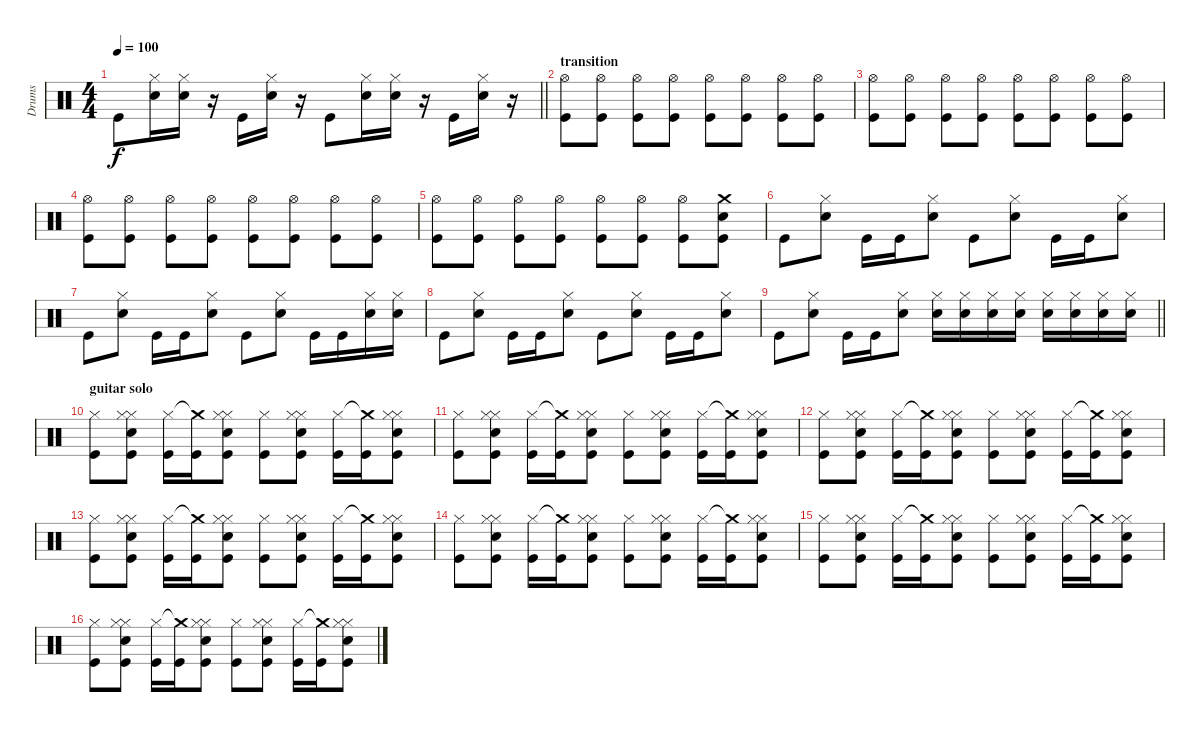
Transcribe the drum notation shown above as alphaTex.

\track ("Drums" "Drums") {instrument percussion}
\staff {score}
\articulation defaults
\ts (4 4)
\tempo 100
\clef neutral
\barLineRight lightlight
\ks c "Kick (hit)".8{dy f}
("Hi-Hat (closed)" "Snare (hit) 2").16 ("Hi-Hat (closed)" "Snare (hit) 2").16 r.16 "Kick (hit)".16 ("Hi-Hat (closed)" "Snare (hit) 2").16 r.16 "Kick (hit)".8 ("Hi-Hat (closed)" "Snare (hit) 2").16 ("Hi-Hat (closed)" "Snare (hit) 2").16 r.16 "Kick (hit)".16 ("Hi-Hat (closed)" "Snare (hit) 2").16 r.16 |
\section ("" "transition")
("Hi-Hat (open)" "Kick (hit)").8 ("Hi-Hat (open)" "Kick (hit)").8 ("Hi-Hat (open)" "Kick (hit)").8 ("Hi-Hat (open)" "Kick (hit)").8 ("Hi-Hat (open)" "Kick (hit)").8 ("Hi-Hat (open)" "Kick (hit)").8 ("Hi-Hat (open)" "Kick (hit)").8 ("Hi-Hat (open)" "Kick (hit)").8 |
("Hi-Hat (open)" "Kick (hit)").8 ("Hi-Hat (open)" "Kick (hit)").8 ("Hi-Hat (open)" "Kick (hit)").8 ("Hi-Hat (open)" "Kick (hit)").8 ("Hi-Hat (open)" "Kick (hit)").8 ("Hi-Hat (open)" "Kick (hit)").8 ("Hi-Hat (open)" "Kick (hit)").8 ("Hi-Hat (open)" "Kick (hit)").8 |
("Hi-Hat (open)" "Kick (hit)").8 ("Hi-Hat (open)" "Kick (hit)").8 ("Hi-Hat (open)" "Kick (hit)").8 ("Hi-Hat (open)" "Kick (hit)").8 ("Hi-Hat (open)" "Kick (hit)").8 ("Hi-Hat (open)" "Kick (hit)").8 ("Hi-Hat (open)" "Kick (hit)").8 ("Hi-Hat (open)" "Kick (hit)").8 |
("Hi-Hat (open)" "Kick (hit)").8 ("Hi-Hat (open)" "Kick (hit)").8 ("Hi-Hat (open)" "Kick (hit)").8 ("Hi-Hat (open)" "Kick (hit)").8 ("Hi-Hat (open)" "Kick (hit)").8 ("Hi-Hat (open)" "Kick (hit)").8 ("Hi-Hat (open)" "Kick (hit)").8 ("Crash medium (hit)" "Snare (hit) 2" "Kick (hit)").8 |
"Kick (hit)".8 ("Hi-Hat (closed)" "Snare (hit) 2").8 "Kick (hit)".16 "Kick (hit)".16 ("Hi-Hat (closed)" "Snare (hit) 2").8 "Kick (hit)".8 ("Hi-Hat (closed)" "Snare (hit) 2").8 "Kick (hit)".16 "Kick (hit)".16 ("Hi-Hat (closed)" "Snare (hit) 2").8 |
"Kick (hit)".8 ("Hi-Hat (closed)" "Snare (hit) 2").8 "Kick (hit)".16 "Kick (hit)".16 ("Hi-Hat (closed)" "Snare (hit) 2").8 "Kick (hit)".8 ("Hi-Hat (closed)" "Snare (hit) 2").8 "Kick (hit)".16 "Kick (hit)".16 ("Hi-Hat (closed)" "Snare (hit) 2").16 ("Hi-Hat (closed)" "Snare (hit) 2").16 |
"Kick (hit)".8 ("Hi-Hat (closed)" "Snare (hit) 2").8 "Kick (hit)".16 "Kick (hit)".16 ("Hi-Hat (closed)" "Snare (hit) 2").8 "Kick (hit)".8 ("Hi-Hat (closed)" "Snare (hit) 2").8 "Kick (hit)".16 "Kick (hit)".16 ("Hi-Hat (closed)" "Snare (hit) 2").8 |
\barLineRight lightlight "Kick (hit)".8
("Hi-Hat (closed)" "Snare (hit) 2").8 "Kick (hit)".16 "Kick (hit)".16 ("Hi-Hat (closed)" "Snare (hit) 2").8 ("Hi-Hat (closed)" "Snare (hit) 2").16 ("Hi-Hat (closed)" "Snare (hit) 2").16 ("Hi-Hat (closed)" "Snare (hit) 2").16 ("Hi-Hat (closed)" "Snare (hit) 2").16 ("Hi-Hat (closed)" "Snare (hit) 2").16 ("Hi-Hat (closed)" "Snare (hit) 2").16 ("Hi-Hat (closed)" "Snare (hit) 2").16 ("Hi-Hat (closed)" "Snare (hit) 2").16 |
\section ("" "guitar solo")
("Hi-Hat (closed)" "Kick (hit)").8 ("Hi-Hat (closed)" "Hi-Hat (closed)" "Snare (hit) 2" "Kick (hit)").8 ("Hi-Hat (closed)" "Kick (hit)").16 ("Crash medium (hit)"{t} "Kick (hit)").16 ("Hi-Hat (closed)" "Hi-Hat (closed)" "Snare (hit) 2" "Kick (hit)").8 ("Hi-Hat (closed)" "Kick (hit)").8 ("Hi-Hat (closed)" "Hi-Hat (closed)" "Snare (hit) 2" "Kick (hit)").8 ("Hi-Hat (closed)" "Kick (hit)").16 ("Crash medium (hit)"{t} "Kick (hit)").16 ("Hi-Hat (closed)" "Hi-Hat (closed)" "Snare (hit) 2" "Kick (hit)").8 |
("Hi-Hat (closed)" "Kick (hit)").8 ("Hi-Hat (closed)" "Hi-Hat (closed)" "Snare (hit) 2" "Kick (hit)").8 ("Hi-Hat (closed)" "Kick (hit)").16 ("Crash medium (hit)"{t} "Kick (hit)").16 ("Hi-Hat (closed)" "Hi-Hat (closed)" "Snare (hit) 2" "Kick (hit)").8 ("Hi-Hat (closed)" "Kick (hit)").8 ("Hi-Hat (closed)" "Hi-Hat (closed)" "Snare (hit) 2" "Kick (hit)").8 ("Hi-Hat (closed)" "Kick (hit)").16 ("Crash medium (hit)"{t} "Kick (hit)").16 ("Hi-Hat (closed)" "Hi-Hat (closed)" "Snare (hit) 2" "Kick (hit)").8 |
("Hi-Hat (closed)" "Kick (hit)").8 ("Hi-Hat (closed)" "Hi-Hat (closed)" "Snare (hit) 2" "Kick (hit)").8 ("Hi-Hat (closed)" "Kick (hit)").16 ("Crash medium (hit)"{t} "Kick (hit)").16 ("Hi-Hat (closed)" "Hi-Hat (closed)" "Snare (hit) 2" "Kick (hit)").8 ("Hi-Hat (closed)" "Kick (hit)").8 ("Hi-Hat (closed)" "Hi-Hat (closed)" "Snare (hit) 2" "Kick (hit)").8 ("Hi-Hat (closed)" "Kick (hit)").16 ("Crash medium (hit)"{t} "Kick (hit)").16 ("Hi-Hat (closed)" "Hi-Hat (closed)" "Snare (hit) 2" "Kick (hit)").8 |
("Hi-Hat (closed)" "Kick (hit)").8 ("Hi-Hat (closed)" "Hi-Hat (closed)" "Snare (hit) 2" "Kick (hit)").8 ("Hi-Hat (closed)" "Kick (hit)").16 ("Crash medium (hit)"{t} "Kick (hit)").16 ("Hi-Hat (closed)" "Hi-Hat (closed)" "Snare (hit) 2" "Kick (hit)").8 ("Hi-Hat (closed)" "Kick (hit)").8 ("Hi-Hat (closed)" "Hi-Hat (closed)" "Snare (hit) 2" "Kick (hit)").8 ("Hi-Hat (closed)" "Kick (hit)").16 ("Crash medium (hit)"{t} "Kick (hit)").16 ("Hi-Hat (closed)" "Hi-Hat (closed)" "Snare (hit) 2" "Kick (hit)").8 |
("Hi-Hat (closed)" "Kick (hit)").8 ("Hi-Hat (closed)" "Hi-Hat (closed)" "Snare (hit) 2" "Kick (hit)").8 ("Hi-Hat (closed)" "Kick (hit)").16 ("Crash medium (hit)"{t} "Kick (hit)").16 ("Hi-Hat (closed)" "Hi-Hat (closed)" "Snare (hit) 2" "Kick (hit)").8 ("Hi-Hat (closed)" "Kick (hit)").8 ("Hi-Hat (closed)" "Hi-Hat (closed)" "Snare (hit) 2" "Kick (hit)").8 ("Hi-Hat (closed)" "Kick (hit)").16 ("Crash medium (hit)"{t} "Kick (hit)").16 ("Hi-Hat (closed)" "Hi-Hat (closed)" "Snare (hit) 2" "Kick (hit)").8 |
("Hi-Hat (closed)" "Kick (hit)").8 ("Hi-Hat (closed)" "Hi-Hat (closed)" "Snare (hit) 2" "Kick (hit)").8 ("Hi-Hat (closed)" "Kick (hit)").16 ("Crash medium (hit)"{t} "Kick (hit)").16 ("Hi-Hat (closed)" "Hi-Hat (closed)" "Snare (hit) 2" "Kick (hit)").8 ("Hi-Hat (closed)" "Kick (hit)").8 ("Hi-Hat (closed)" "Hi-Hat (closed)" "Snare (hit) 2" "Kick (hit)").8 ("Hi-Hat (closed)" "Kick (hit)").16 ("Crash medium (hit)"{t} "Kick (hit)").16 ("Hi-Hat (closed)" "Hi-Hat (closed)" "Snare (hit) 2" "Kick (hit)").8 |
("Hi-Hat (closed)" "Kick (hit)").8 ("Hi-Hat (closed)" "Hi-Hat (closed)" "Snare (hit) 2" "Kick (hit)").8 ("Hi-Hat (closed)" "Kick (hit)").16 ("Crash medium (hit)"{t} "Kick (hit)").16 ("Hi-Hat (closed)" "Hi-Hat (closed)" "Snare (hit) 2" "Kick (hit)").8 ("Hi-Hat (closed)" "Kick (hit)").8 ("Hi-Hat (closed)" "Hi-Hat (closed)" "Snare (hit) 2" "Kick (hit)").8 ("Hi-Hat (closed)" "Kick (hit)").16 ("Crash medium (hit)"{t} "Kick (hit)").16 ("Hi-Hat (closed)" "Hi-Hat (closed)" "Snare (hit) 2" "Kick (hit)").8
